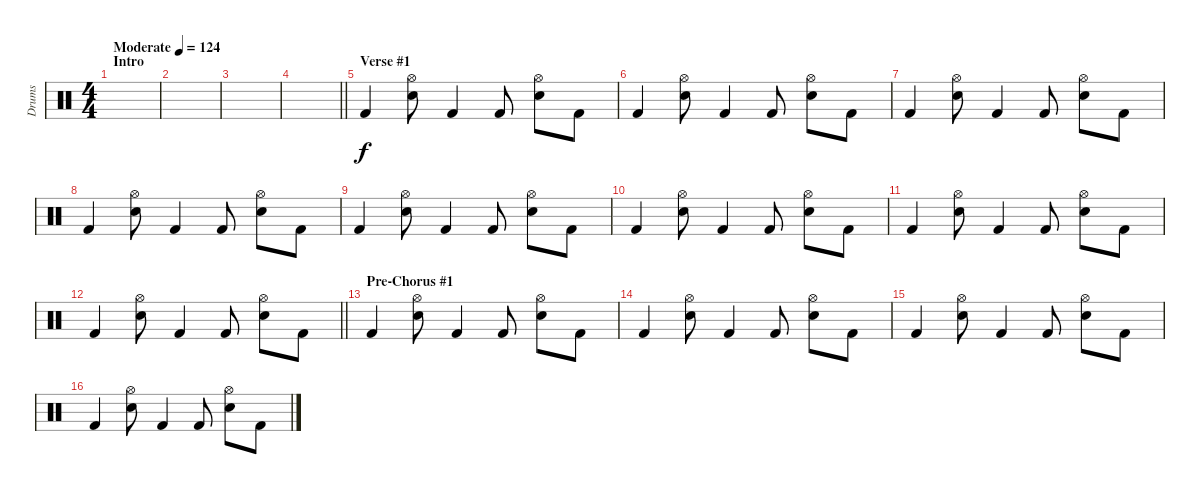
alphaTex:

\track ("Drums" "Drums") {instrument percussion}
\staff {score}
\articulation defaults
\ts (4 4)
\section ("" "Intro")
\tempo (124 "Moderate")
\clef neutral
\ks c
|
|
|
\barLineRight lightlight
|
\section ("" "Verse #1")
"Kick (hit) 2".4 ("Hi-Hat (open)" "Snare (hit) 2").8 "Kick (hit) 2".4 "Kick (hit) 2".8 ("Hi-Hat (open)" "Snare (hit) 2").8 "Kick (hit) 2".8 |
"Kick (hit) 2".4 ("Hi-Hat (open)" "Snare (hit) 2").8 "Kick (hit) 2".4 "Kick (hit) 2".8 ("Hi-Hat (open)" "Snare (hit) 2").8 "Kick (hit) 2".8 |
"Kick (hit) 2".4 ("Hi-Hat (open)" "Snare (hit) 2").8 "Kick (hit) 2".4 "Kick (hit) 2".8 ("Hi-Hat (open)" "Snare (hit) 2").8 "Kick (hit) 2".8 |
"Kick (hit) 2".4 ("Hi-Hat (open)" "Snare (hit) 2").8 "Kick (hit) 2".4 "Kick (hit) 2".8 ("Hi-Hat (open)" "Snare (hit) 2").8 "Kick (hit) 2".8 |
"Kick (hit) 2".4 ("Hi-Hat (open)" "Snare (hit) 2").8 "Kick (hit) 2".4 "Kick (hit) 2".8 ("Hi-Hat (open)" "Snare (hit) 2").8 "Kick (hit) 2".8 |
"Kick (hit) 2".4 ("Hi-Hat (open)" "Snare (hit) 2").8 "Kick (hit) 2".4 "Kick (hit) 2".8 ("Hi-Hat (open)" "Snare (hit) 2").8 "Kick (hit) 2".8 |
"Kick (hit) 2".4 ("Hi-Hat (open)" "Snare (hit) 2").8 "Kick (hit) 2".4 "Kick (hit) 2".8 ("Hi-Hat (open)" "Snare (hit) 2").8 "Kick (hit) 2".8 |
\barLineRight lightlight "Kick (hit) 2".4
("Hi-Hat (open)" "Snare (hit) 2").8 "Kick (hit) 2".4 "Kick (hit) 2".8 ("Hi-Hat (open)" "Snare (hit) 2").8 "Kick (hit) 2".8 |
\section ("" "Pre-Chorus #1")
"Kick (hit) 2".4 ("Hi-Hat (open)" "Snare (hit) 2").8 "Kick (hit) 2".4 "Kick (hit) 2".8 ("Hi-Hat (open)" "Snare (hit) 2").8 "Kick (hit) 2".8 |
"Kick (hit) 2".4 ("Hi-Hat (open)" "Snare (hit) 2").8 "Kick (hit) 2".4 "Kick (hit) 2".8 ("Hi-Hat (open)" "Snare (hit) 2").8 "Kick (hit) 2".8 |
"Kick (hit) 2".4 ("Hi-Hat (open)" "Snare (hit) 2").8 "Kick (hit) 2".4 "Kick (hit) 2".8 ("Hi-Hat (open)" "Snare (hit) 2").8 "Kick (hit) 2".8 |
"Kick (hit) 2".4 ("Hi-Hat (open)" "Snare (hit) 2").8 "Kick (hit) 2".4 "Kick (hit) 2".8 ("Hi-Hat (open)" "Snare (hit) 2").8 "Kick (hit) 2".8
